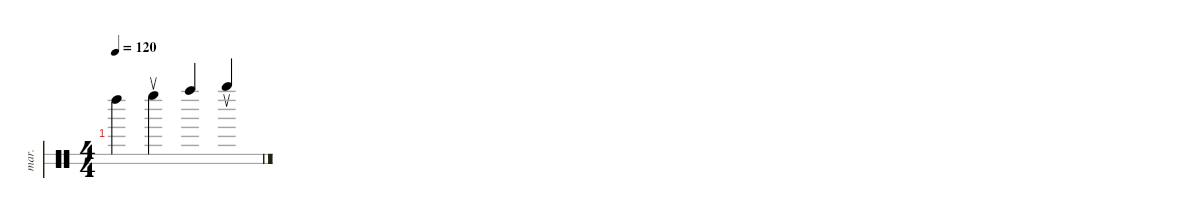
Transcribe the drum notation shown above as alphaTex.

\defaultSystemsLayout 4
\hideDynamics
\bracketExtendMode nobrackets
\otherSystemsTrackNameOrientation horizontal
\track ("Two Lines" "mar.") {instrument percussion}
\staff {score 2}
\articulation defaults
\ts (4 4)
\tempo 120
\clef neutral
\ks c "Left Maraca (hit)".4{dy mf beam Down} "Left Maraca (return)".4{beam Down} "Right Maraca (hit)".4{beam Up} "Right Maraca (return)".4{beam Up}
